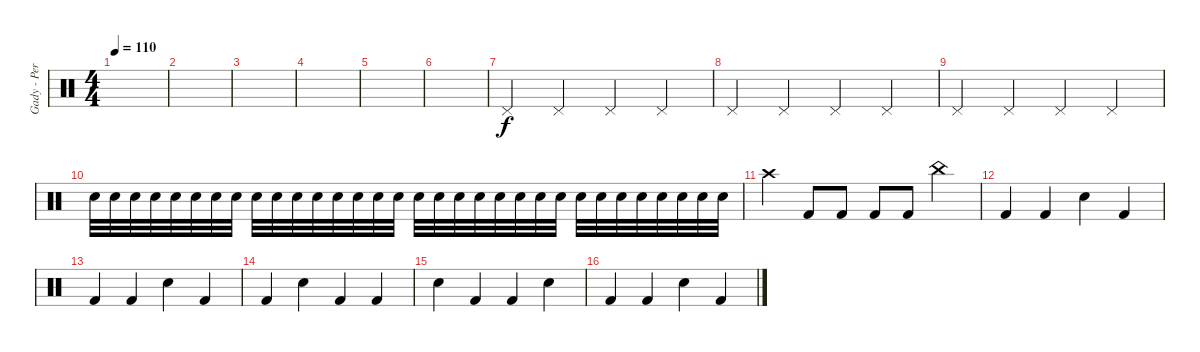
\track ("Gady - Perkusja" "Gady - Per") {instrument percussion}
\staff {score}
\articulation defaults
\ts (4 4)
\tempo 110
\clef neutral
\ks c
|
|
|
|
|
|
"Pedal Hi-Hat (hit)".4 "Pedal Hi-Hat (hit)".4 "Pedal Hi-Hat (hit)".4 "Pedal Hi-Hat (hit)".4 |
"Pedal Hi-Hat (hit)".4 "Pedal Hi-Hat (hit)".4 "Pedal Hi-Hat (hit)".4 "Pedal Hi-Hat (hit)".4 |
"Pedal Hi-Hat (hit)".4 "Pedal Hi-Hat (hit)".4 "Pedal Hi-Hat (hit)".4 "Pedal Hi-Hat (hit)".4 |
"Electric Snare (hit)".32 "Electric Snare (hit)".32 "Electric Snare (hit)".32 "Electric Snare (hit)".32 "Electric Snare (hit)".32 "Electric Snare (hit)".32 "Electric Snare (hit)".32 "Electric Snare (hit)".32 "Electric Snare (hit)".32 "Electric Snare (hit)".32 "Electric Snare (hit)".32 "Electric Snare (hit)".32 "Electric Snare (hit)".32 "Electric Snare (hit)".32 "Electric Snare (hit)".32 "Electric Snare (hit)".32 "Electric Snare (hit)".32 "Electric Snare (hit)".32 "Electric Snare (hit)".32 "Electric Snare (hit)".32 "Electric Snare (hit)".32 "Electric Snare (hit)".32 "Electric Snare (hit)".32 "Electric Snare (hit)".32 "Electric Snare (hit)".32 "Electric Snare (hit)".32 "Electric Snare (hit)".32 "Electric Snare (hit)".32 "Electric Snare (hit)".32 "Electric Snare (hit)".32 "Electric Snare (hit)".32 "Electric Snare (hit)".32 |
"Crash high (hit)".4 "Kick (hit) 2".8 "Kick (hit) 2".8 "Kick (hit) 2".8 "Kick (hit) 2".8 "China (hit)".4 |
"Kick (hit) 2".4 "Kick (hit) 2".4 "Electric Snare (hit)".4 "Kick (hit) 2".4 |
"Kick (hit) 2".4 "Kick (hit) 2".4 "Electric Snare (hit)".4 "Kick (hit) 2".4 |
"Kick (hit) 2".4 "Electric Snare (hit)".4 "Kick (hit) 2".4 "Kick (hit) 2".4 |
"Electric Snare (hit)".4 "Kick (hit) 2".4 "Kick (hit) 2".4 "Electric Snare (hit)".4 |
"Kick (hit) 2".4 "Kick (hit) 2".4 "Electric Snare (hit)".4 "Kick (hit) 2".4
